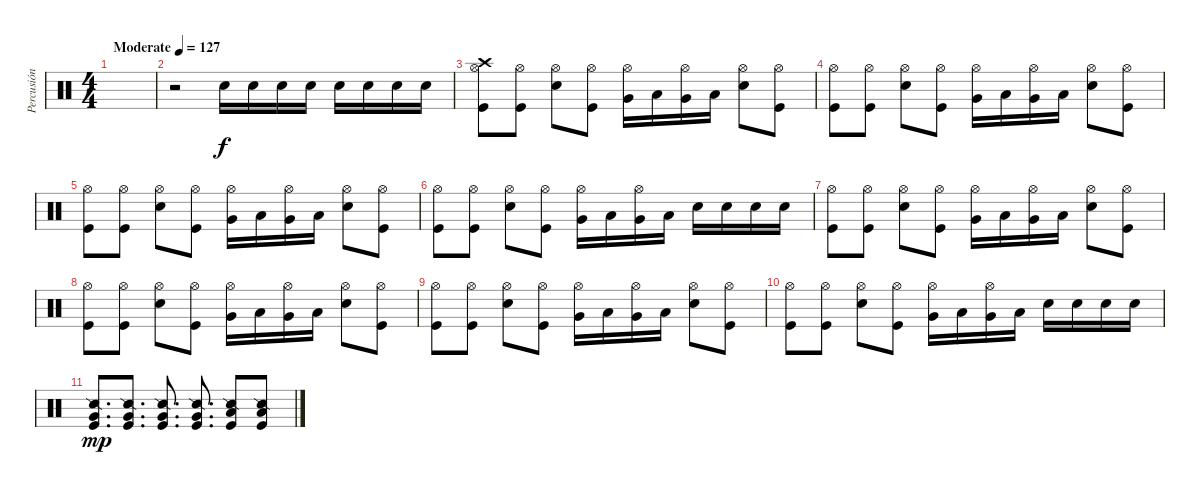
\track ("Percusión" "Percusión") {instrument percussion}
\staff {score}
\articulation defaults
\ts (4 4)
\tempo (127 "Moderate")
\clef neutral
\ks c
|
r.2 "Snare (hit) 2".16 "Snare (hit) 2".16 "Snare (hit) 2".16 "Snare (hit) 2".16 "Snare (hit) 2".16 "Snare (hit) 2".16 "Snare (hit) 2".16 "Snare (hit) 2".16 |
("Kick (hit)" "Hi-Hat (open)" "Crash high (hit)").8 ("Kick (hit)" "Hi-Hat (open)").8 ("Snare (hit) 2" "Hi-Hat (open)").8 ("Kick (hit)" "Hi-Hat (open)").8 ("Very Low Tom (hit)" "Hi-Hat (open)").16 "Low Tom (hit)".16 ("Very Low Tom (hit)" "Hi-Hat (open)").16 "Low Tom (hit)".16 ("Snare (hit) 2" "Hi-Hat (open)").8 ("Kick (hit)" "Hi-Hat (open)").8 |
("Kick (hit)" "Hi-Hat (open)").8 ("Kick (hit)" "Hi-Hat (open)").8 ("Snare (hit) 2" "Hi-Hat (open)").8 ("Kick (hit)" "Hi-Hat (open)").8 ("Very Low Tom (hit)" "Hi-Hat (open)").16 "Low Tom (hit)".16 ("Very Low Tom (hit)" "Hi-Hat (open)").16 "Low Tom (hit)".16 ("Snare (hit) 2" "Hi-Hat (open)").8 ("Kick (hit)" "Hi-Hat (open)").8 |
("Kick (hit)" "Hi-Hat (open)").8 ("Kick (hit)" "Hi-Hat (open)").8 ("Snare (hit) 2" "Hi-Hat (open)").8 ("Kick (hit)" "Hi-Hat (open)").8 ("Very Low Tom (hit)" "Hi-Hat (open)").16 "Low Tom (hit)".16 ("Very Low Tom (hit)" "Hi-Hat (open)").16 "Low Tom (hit)".16 ("Snare (hit) 2" "Hi-Hat (open)").8 ("Kick (hit)" "Hi-Hat (open)").8 |
("Kick (hit)" "Hi-Hat (open)").8 ("Kick (hit)" "Hi-Hat (open)").8 ("Snare (hit) 2" "Hi-Hat (open)").8 ("Kick (hit)" "Hi-Hat (open)").8 ("Very Low Tom (hit)" "Hi-Hat (open)").16 "Low Tom (hit)".16 ("Very Low Tom (hit)" "Hi-Hat (open)").16 "Low Tom (hit)".16 "Snare (hit) 2".16 "Snare (hit) 2".16 "Snare (hit) 2".16 "Snare (hit) 2".16 |
("Kick (hit)" "Hi-Hat (open)").8 ("Kick (hit)" "Hi-Hat (open)").8 ("Snare (hit) 2" "Hi-Hat (open)").8 ("Kick (hit)" "Hi-Hat (open)").8 ("Very Low Tom (hit)" "Hi-Hat (open)").16 "Low Tom (hit)".16 ("Very Low Tom (hit)" "Hi-Hat (open)").16 "Low Tom (hit)".16 ("Snare (hit) 2" "Hi-Hat (open)").8 ("Kick (hit)" "Hi-Hat (open)").8 |
("Kick (hit)" "Hi-Hat (open)").8 ("Kick (hit)" "Hi-Hat (open)").8 ("Snare (hit) 2" "Hi-Hat (open)").8 ("Kick (hit)" "Hi-Hat (open)").8 ("Very Low Tom (hit)" "Hi-Hat (open)").16 "Low Tom (hit)".16 ("Very Low Tom (hit)" "Hi-Hat (open)").16 "Low Tom (hit)".16 ("Snare (hit) 2" "Hi-Hat (open)").8 ("Kick (hit)" "Hi-Hat (open)").8 |
("Kick (hit)" "Hi-Hat (open)").8 ("Kick (hit)" "Hi-Hat (open)").8 ("Snare (hit) 2" "Hi-Hat (open)").8 ("Kick (hit)" "Hi-Hat (open)").8 ("Very Low Tom (hit)" "Hi-Hat (open)").16 "Low Tom (hit)".16 ("Very Low Tom (hit)" "Hi-Hat (open)").16 "Low Tom (hit)".16 ("Snare (hit) 2" "Hi-Hat (open)").8 ("Kick (hit)" "Hi-Hat (open)").8 |
("Kick (hit)" "Hi-Hat (open)").8 ("Kick (hit)" "Hi-Hat (open)").8 ("Snare (hit) 2" "Hi-Hat (open)").8 ("Kick (hit)" "Hi-Hat (open)").8 ("Very Low Tom (hit)" "Hi-Hat (open)").16 "Low Tom (hit)".16 ("Very Low Tom (hit)" "Hi-Hat (open)").16 "Low Tom (hit)".16 "Snare (hit) 2".16 "Snare (hit) 2".16 "Snare (hit) 2".16 "Snare (hit) 2".16 |
("Kick (hit)" "Very Low Tom (hit)" "Snare (side stick) 2").8{d dy mp} ("Kick (hit)" "Very Low Tom (hit)" "Snare (side stick) 2").8{d} ("Kick (hit)" "Very Low Tom (hit)" "Snare (side stick) 2").8{d} ("Kick (hit)" "Very Low Tom (hit)" "Snare (side stick) 2").8{d} ("Kick (hit)" "Low Floor Tom (hit)" "Snare (side stick) 2").8 ("Kick (hit)" "Low Floor Tom (hit)" "Snare (side stick) 2").8
